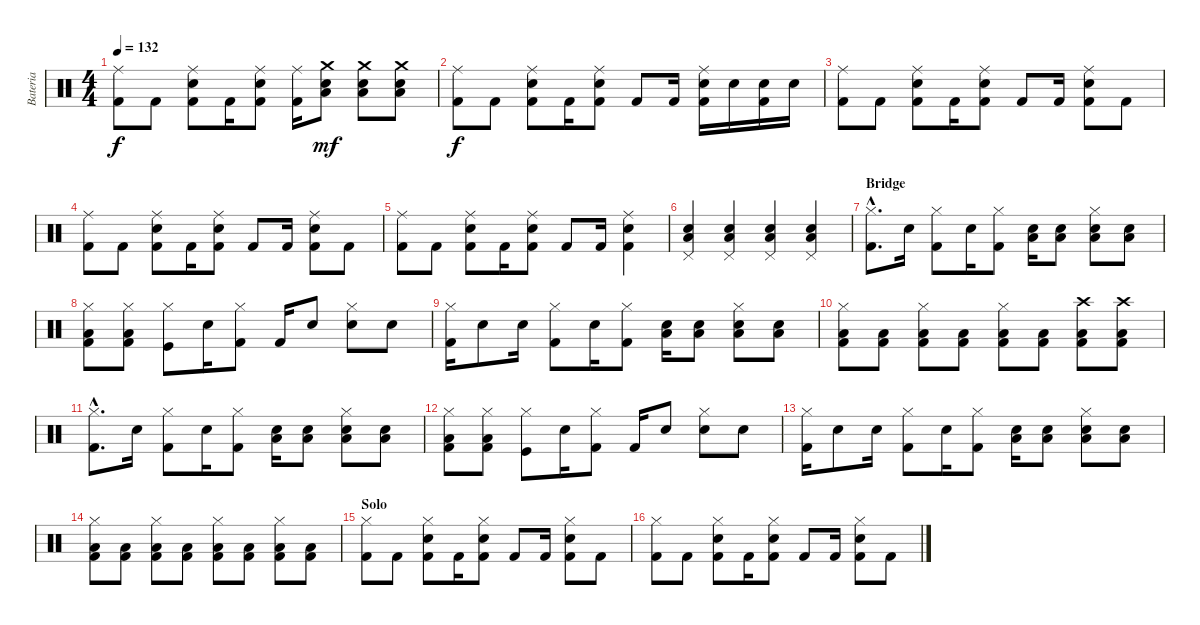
\track ("Bateria" "Bateria") {instrument percussion}
\staff {score}
\articulation defaults
\ts (4 4)
\tempo 132
\clef neutral
\ks c
("Ride (middle)" "Kick (hit) 2").8{dy f} "Kick (hit) 2".8 ("Ride (middle)" "Kick (hit) 2" "Electric Snare (hit)").8 "Kick (hit) 2".16 ("Ride (middle)" "Kick (hit) 2" "Electric Snare (hit)").8 ("Ride (middle)" "Kick (hit) 2").16 ("Crash medium (hit)" "Low Floor Tom (hit)" "Electric Snare (hit)").8{dy mf} ("Crash medium (hit)" "Low Floor Tom (hit)" "Electric Snare (hit)").8 ("Crash medium (hit)" "Low Floor Tom (hit)" "Electric Snare (hit)").8 |
("Ride (middle)" "Kick (hit) 2").8{dy f} "Kick (hit) 2".8 ("Ride (middle)" "Kick (hit) 2" "Electric Snare (hit)").8 "Kick (hit) 2".16 ("Ride (middle)" "Kick (hit) 2" "Electric Snare (hit)").8 "Kick (hit) 2".8 "Kick (hit) 2".16 ("Ride (middle)" "Kick (hit) 2" "Electric Snare (hit)").16 "Electric Snare (hit)".16 ("Kick (hit) 2" "Electric Snare (hit)").16 "Electric Snare (hit)".16 |
("Ride (middle)" "Kick (hit) 2").8 "Kick (hit) 2".8 ("Ride (middle)" "Kick (hit) 2" "Electric Snare (hit)").8 "Kick (hit) 2".16 ("Ride (middle)" "Kick (hit) 2" "Electric Snare (hit)").8 "Kick (hit) 2".8 "Kick (hit) 2".16 ("Ride (middle)" "Kick (hit) 2" "Electric Snare (hit)").8 "Kick (hit) 2".8 |
("Ride (middle)" "Kick (hit) 2").8 "Kick (hit) 2".8 ("Ride (middle)" "Kick (hit) 2" "Electric Snare (hit)").8 "Kick (hit) 2".16 ("Ride (middle)" "Kick (hit) 2" "Electric Snare (hit)").8 "Kick (hit) 2".8 "Kick (hit) 2".16 ("Ride (middle)" "Kick (hit) 2" "Electric Snare (hit)").8 "Kick (hit) 2".8 |
("Ride (middle)" "Kick (hit) 2").8 "Kick (hit) 2".8 ("Ride (middle)" "Kick (hit) 2" "Electric Snare (hit)").8 "Kick (hit) 2".16 ("Ride (middle)" "Kick (hit) 2" "Electric Snare (hit)").8 "Kick (hit) 2".8 "Kick (hit) 2".16 ("Ride (middle)" "Kick (hit) 2" "Electric Snare (hit)").4 |
("Pedal Hi-Hat (hit)" "Electric Snare (hit)" "Low Floor Tom (hit)").4 ("Pedal Hi-Hat (hit)" "Electric Snare (hit)" "Low Floor Tom (hit)").4 ("Pedal Hi-Hat (hit)" "Electric Snare (hit)" "Low Floor Tom (hit)").4 ("Pedal Hi-Hat (hit)" "Electric Snare (hit)" "Low Floor Tom (hit)").4 |
\section ("" "Bridge")
("Hi-Hat (closed)"{hac} "Kick (hit) 2"{hac}).8{d} "Electric Snare (hit)".16 ("Hi-Hat (closed)" "Kick (hit) 2").8 "Electric Snare (hit)".16 ("Hi-Hat (closed)" "Kick (hit) 2").8 ("Electric Snare (hit)" "Low Floor Tom (hit)").16 ("Electric Snare (hit)" "Low Floor Tom (hit)").8 ("Hi-Hat (closed)" "Electric Snare (hit)" "Low Floor Tom (hit)").8 ("Electric Snare (hit)" "Low Floor Tom (hit)").8 |
("Hi-Hat (closed)" "Kick (hit) 2" "Low Floor Tom (hit)").8 ("Hi-Hat (closed)" "Kick (hit) 2" "Low Floor Tom (hit)").8 ("Hi-Hat (closed)" "Kick (hit)").8 "Electric Snare (hit)".16 ("Hi-Hat (closed)" "Kick (hit) 2").8 "Kick (hit) 2".16 "Electric Snare (hit)".8 ("Hi-Hat (closed)" "Electric Snare (hit)").8 "Electric Snare (hit)".8 |
("Hi-Hat (closed)" "Kick (hit) 2").16 "Electric Snare (hit)".8 "Electric Snare (hit)".16 ("Hi-Hat (closed)" "Kick (hit) 2").8 "Electric Snare (hit)".16 ("Hi-Hat (closed)" "Kick (hit) 2").8 ("Electric Snare (hit)" "Low Floor Tom (hit)").16 ("Electric Snare (hit)" "Low Floor Tom (hit)").8 ("Hi-Hat (closed)" "Electric Snare (hit)" "Low Floor Tom (hit)").8 ("Electric Snare (hit)" "Low Floor Tom (hit)").8 |
("Hi-Hat (closed)" "Kick (hit) 2" "Low Floor Tom (hit)").8 ("Kick (hit) 2" "Low Floor Tom (hit)").8 ("Hi-Hat (closed)" "Kick (hit) 2" "Low Floor Tom (hit)").8 ("Kick (hit) 2" "Low Floor Tom (hit)").8 ("Hi-Hat (closed)" "Kick (hit) 2" "Low Floor Tom (hit)").8 ("Kick (hit) 2" "Low Floor Tom (hit)").8 ("Crash high (hit)" "Kick (hit) 2" "Low Floor Tom (hit)").8 ("Crash high (hit)" "Kick (hit) 2" "Low Floor Tom (hit)").8 |
("Hi-Hat (closed)"{hac} "Kick (hit) 2"{hac}).8{d} "Electric Snare (hit)".16 ("Hi-Hat (closed)" "Kick (hit) 2").8 "Electric Snare (hit)".16 ("Hi-Hat (closed)" "Kick (hit) 2").8 ("Electric Snare (hit)" "Low Floor Tom (hit)").16 ("Electric Snare (hit)" "Low Floor Tom (hit)").8 ("Hi-Hat (closed)" "Electric Snare (hit)" "Low Floor Tom (hit)").8 ("Electric Snare (hit)" "Low Floor Tom (hit)").8 |
("Hi-Hat (closed)" "Kick (hit) 2" "Low Floor Tom (hit)").8 ("Hi-Hat (closed)" "Kick (hit) 2" "Low Floor Tom (hit)").8 ("Hi-Hat (closed)" "Kick (hit)").8 "Electric Snare (hit)".16 ("Hi-Hat (closed)" "Kick (hit) 2").8 "Kick (hit) 2".16 "Electric Snare (hit)".8 ("Hi-Hat (closed)" "Electric Snare (hit)").8 "Electric Snare (hit)".8 |
("Hi-Hat (closed)" "Kick (hit) 2").16 "Electric Snare (hit)".8 "Electric Snare (hit)".16 ("Hi-Hat (closed)" "Kick (hit) 2").8 "Electric Snare (hit)".16 ("Hi-Hat (closed)" "Kick (hit) 2").8 ("Electric Snare (hit)" "Low Floor Tom (hit)").16 ("Electric Snare (hit)" "Low Floor Tom (hit)").8 ("Hi-Hat (closed)" "Electric Snare (hit)" "Low Floor Tom (hit)").8 ("Electric Snare (hit)" "Low Floor Tom (hit)").8 |
("Hi-Hat (closed)" "Kick (hit) 2" "Low Floor Tom (hit)").8 ("Kick (hit) 2" "Low Floor Tom (hit)").8 ("Hi-Hat (closed)" "Kick (hit) 2" "Low Floor Tom (hit)").8 ("Kick (hit) 2" "Low Floor Tom (hit)").8 ("Hi-Hat (closed)" "Kick (hit) 2" "Low Floor Tom (hit)").8 ("Kick (hit) 2" "Low Floor Tom (hit)").8 ("Hi-Hat (closed)" "Kick (hit) 2" "Low Floor Tom (hit)").8 ("Kick (hit) 2" "Low Floor Tom (hit)").8 |
\section ("" "Solo")
("Hi-Hat (closed)" "Kick (hit) 2").8 "Kick (hit) 2".8 ("Hi-Hat (closed)" "Kick (hit) 2" "Electric Snare (hit)").8 "Kick (hit) 2".16 ("Hi-Hat (closed)" "Kick (hit) 2" "Electric Snare (hit)").8 "Kick (hit) 2".8 "Kick (hit) 2".16 ("Hi-Hat (closed)" "Kick (hit) 2" "Electric Snare (hit)").8 "Kick (hit) 2".8 |
("Hi-Hat (closed)" "Kick (hit) 2").8 "Kick (hit) 2".8 ("Hi-Hat (closed)" "Kick (hit) 2" "Electric Snare (hit)").8 "Kick (hit) 2".16 ("Hi-Hat (closed)" "Kick (hit) 2" "Electric Snare (hit)").8 "Kick (hit) 2".8 "Kick (hit) 2".16 ("Hi-Hat (closed)" "Kick (hit) 2" "Electric Snare (hit)").8 "Kick (hit) 2".8
